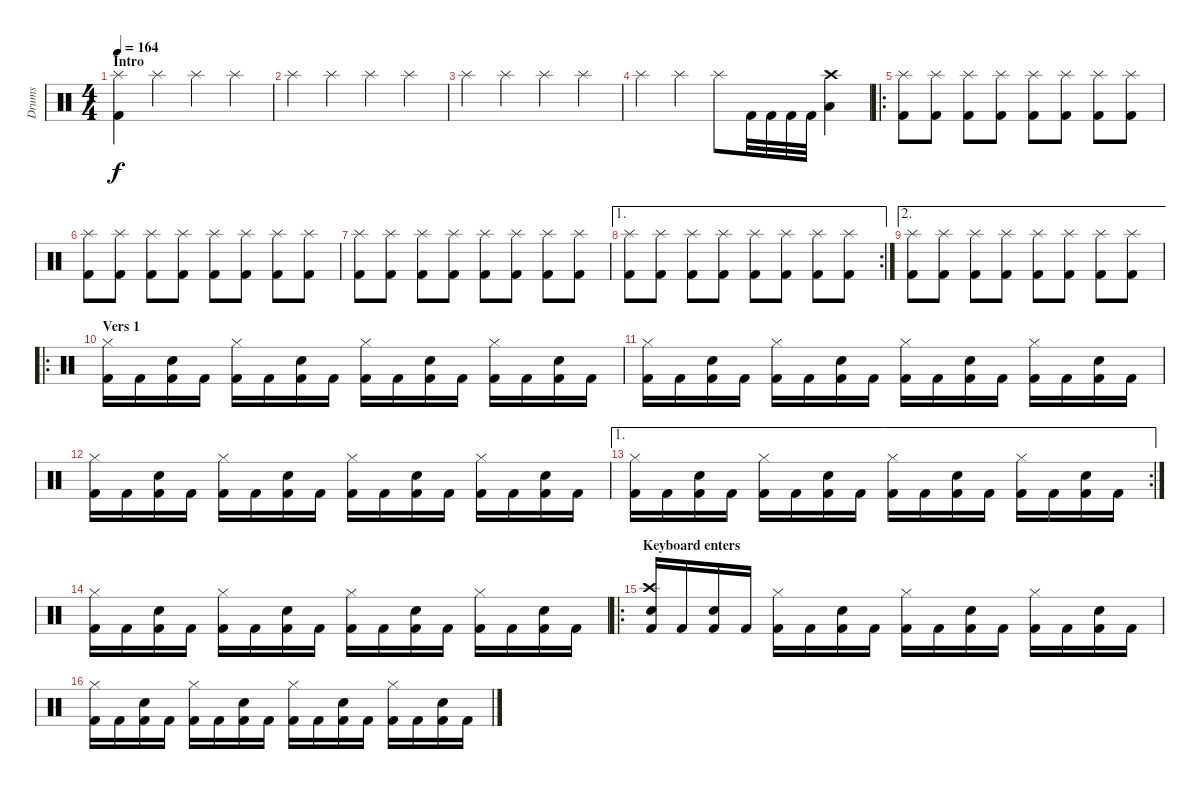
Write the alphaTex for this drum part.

\track ("Drums" "Drums") {instrument percussion}
\staff {score}
\articulation defaults
\ts (4 4)
\section ("" "Intro")
\tempo 164
\clef neutral
\ks c
("Splash (hit)" "Kick (hit) 2").4{dy f} "Splash (hit)".4 "Splash (hit)".4 "Splash (hit)".4 |
"Splash (hit)".4 "Splash (hit)".4 "Splash (hit)".4 "Splash (hit)".4 |
"Splash (hit)".4 "Splash (hit)".4 "Splash (hit)".4 "Splash (hit)".4 |
"Splash (hit)".4 "Splash (hit)".4 "Splash (hit)".8 "Kick (hit) 2".32 "Kick (hit) 2".32 "Kick (hit) 2".32 "Kick (hit) 2".32 ("Crash high (hit)" "Low Tom (hit)").4 |
\ro
("Splash (hit)" "Kick (hit) 2").8 ("Splash (hit)" "Kick (hit) 2").8 ("Splash (hit)" "Kick (hit) 2").8 ("Splash (hit)" "Kick (hit) 2").8 ("Splash (hit)" "Kick (hit) 2").8 ("Splash (hit)" "Kick (hit) 2").8 ("Splash (hit)" "Kick (hit) 2").8 ("Splash (hit)" "Kick (hit) 2").8 |
("Splash (hit)" "Kick (hit) 2").8 ("Splash (hit)" "Kick (hit) 2").8 ("Splash (hit)" "Kick (hit) 2").8 ("Splash (hit)" "Kick (hit) 2").8 ("Splash (hit)" "Kick (hit) 2").8 ("Splash (hit)" "Kick (hit) 2").8 ("Splash (hit)" "Kick (hit) 2").8 ("Splash (hit)" "Kick (hit) 2").8 |
("Splash (hit)" "Kick (hit) 2").8 ("Splash (hit)" "Kick (hit) 2").8 ("Splash (hit)" "Kick (hit) 2").8 ("Splash (hit)" "Kick (hit) 2").8 ("Splash (hit)" "Kick (hit) 2").8 ("Splash (hit)" "Kick (hit) 2").8 ("Splash (hit)" "Kick (hit) 2").8 ("Splash (hit)" "Kick (hit) 2").8 |
\ae 1
\rc 2
("Splash (hit)" "Kick (hit) 2").8 ("Splash (hit)" "Kick (hit) 2").8 ("Splash (hit)" "Kick (hit) 2").8 ("Splash (hit)" "Kick (hit) 2").8 ("Splash (hit)" "Kick (hit) 2").8 ("Splash (hit)" "Kick (hit) 2").8 ("Splash (hit)" "Kick (hit) 2").8 ("Splash (hit)" "Kick (hit) 2").8 |
\ae 2
("Splash (hit)" "Kick (hit) 2").8 ("Splash (hit)" "Kick (hit) 2").8 ("Splash (hit)" "Kick (hit) 2").8 ("Splash (hit)" "Kick (hit) 2").8 ("Splash (hit)" "Kick (hit) 2").8 ("Splash (hit)" "Kick (hit) 2").8 ("Splash (hit)" "Kick (hit) 2").8 ("Splash (hit)" "Kick (hit) 2").8 |
\ro
\section ("" "Vers 1")
("Hi-Hat (closed)" "Kick (hit) 2").16 "Kick (hit) 2".16 ("Snare (hit) 2" "Kick (hit) 2").16 "Kick (hit) 2".16 ("Hi-Hat (closed)" "Kick (hit) 2").16 "Kick (hit) 2".16 ("Snare (hit) 2" "Kick (hit) 2").16 "Kick (hit) 2".16 ("Hi-Hat (closed)" "Kick (hit) 2").16 "Kick (hit) 2".16 ("Snare (hit) 2" "Kick (hit) 2").16 "Kick (hit) 2".16 ("Hi-Hat (closed)" "Kick (hit) 2").16 "Kick (hit) 2".16 ("Snare (hit) 2" "Kick (hit) 2").16 "Kick (hit) 2".16 |
("Hi-Hat (closed)" "Kick (hit) 2").16 "Kick (hit) 2".16 ("Snare (hit) 2" "Kick (hit) 2").16 "Kick (hit) 2".16 ("Hi-Hat (closed)" "Kick (hit) 2").16 "Kick (hit) 2".16 ("Snare (hit) 2" "Kick (hit) 2").16 "Kick (hit) 2".16 ("Hi-Hat (closed)" "Kick (hit) 2").16 "Kick (hit) 2".16 ("Snare (hit) 2" "Kick (hit) 2").16 "Kick (hit) 2".16 ("Hi-Hat (closed)" "Kick (hit) 2").16 "Kick (hit) 2".16 ("Snare (hit) 2" "Kick (hit) 2").16 "Kick (hit) 2".16 |
("Hi-Hat (closed)" "Kick (hit) 2").16 "Kick (hit) 2".16 ("Snare (hit) 2" "Kick (hit) 2").16 "Kick (hit) 2".16 ("Hi-Hat (closed)" "Kick (hit) 2").16 "Kick (hit) 2".16 ("Snare (hit) 2" "Kick (hit) 2").16 "Kick (hit) 2".16 ("Hi-Hat (closed)" "Kick (hit) 2").16 "Kick (hit) 2".16 ("Snare (hit) 2" "Kick (hit) 2").16 "Kick (hit) 2".16 ("Hi-Hat (closed)" "Kick (hit) 2").16 "Kick (hit) 2".16 ("Snare (hit) 2" "Kick (hit) 2").16 "Kick (hit) 2".16 |
\ae 1
\rc 2
("Hi-Hat (closed)" "Kick (hit) 2").16 "Kick (hit) 2".16 ("Snare (hit) 2" "Kick (hit) 2").16 "Kick (hit) 2".16 ("Hi-Hat (closed)" "Kick (hit) 2").16 "Kick (hit) 2".16 ("Snare (hit) 2" "Kick (hit) 2").16 "Kick (hit) 2".16 ("Hi-Hat (closed)" "Kick (hit) 2").16 "Kick (hit) 2".16 ("Snare (hit) 2" "Kick (hit) 2").16 "Kick (hit) 2".16 ("Hi-Hat (closed)" "Kick (hit) 2").16 "Kick (hit) 2".16 ("Snare (hit) 2" "Kick (hit) 2").16 "Kick (hit) 2".16 |
("Hi-Hat (closed)" "Kick (hit) 2").16 "Kick (hit) 2".16 ("Snare (hit) 2" "Kick (hit) 2").16 "Kick (hit) 2".16 ("Hi-Hat (closed)" "Kick (hit) 2").16 "Kick (hit) 2".16 ("Snare (hit) 2" "Kick (hit) 2").16 "Kick (hit) 2".16 ("Hi-Hat (closed)" "Kick (hit) 2").16 "Kick (hit) 2".16 ("Snare (hit) 2" "Kick (hit) 2").16 "Kick (hit) 2".16 ("Hi-Hat (closed)" "Kick (hit) 2").16 "Kick (hit) 2".16 ("Snare (hit) 2" "Kick (hit) 2").16 "Kick (hit) 2".16 |
\ro
\section ("" "Keyboard enters")
("Crash high (hit)" "Snare (hit) 2" "Kick (hit) 2").16 "Kick (hit) 2".16 ("Snare (hit) 2" "Kick (hit) 2").16 "Kick (hit) 2".16 ("Hi-Hat (closed)" "Kick (hit) 2").16 "Kick (hit) 2".16 ("Snare (hit) 2" "Kick (hit) 2").16 "Kick (hit) 2".16 ("Hi-Hat (closed)" "Kick (hit) 2").16 "Kick (hit) 2".16 ("Snare (hit) 2" "Kick (hit) 2").16 "Kick (hit) 2".16 ("Hi-Hat (closed)" "Kick (hit) 2").16 "Kick (hit) 2".16 ("Snare (hit) 2" "Kick (hit) 2").16 "Kick (hit) 2".16 |
("Hi-Hat (closed)" "Kick (hit) 2").16 "Kick (hit) 2".16 ("Snare (hit) 2" "Kick (hit) 2").16 "Kick (hit) 2".16 ("Hi-Hat (closed)" "Kick (hit) 2").16 "Kick (hit) 2".16 ("Snare (hit) 2" "Kick (hit) 2").16 "Kick (hit) 2".16 ("Hi-Hat (closed)" "Kick (hit) 2").16 "Kick (hit) 2".16 ("Snare (hit) 2" "Kick (hit) 2").16 "Kick (hit) 2".16 ("Hi-Hat (closed)" "Kick (hit) 2").16 "Kick (hit) 2".16 ("Snare (hit) 2" "Kick (hit) 2").16 "Kick (hit) 2".16
